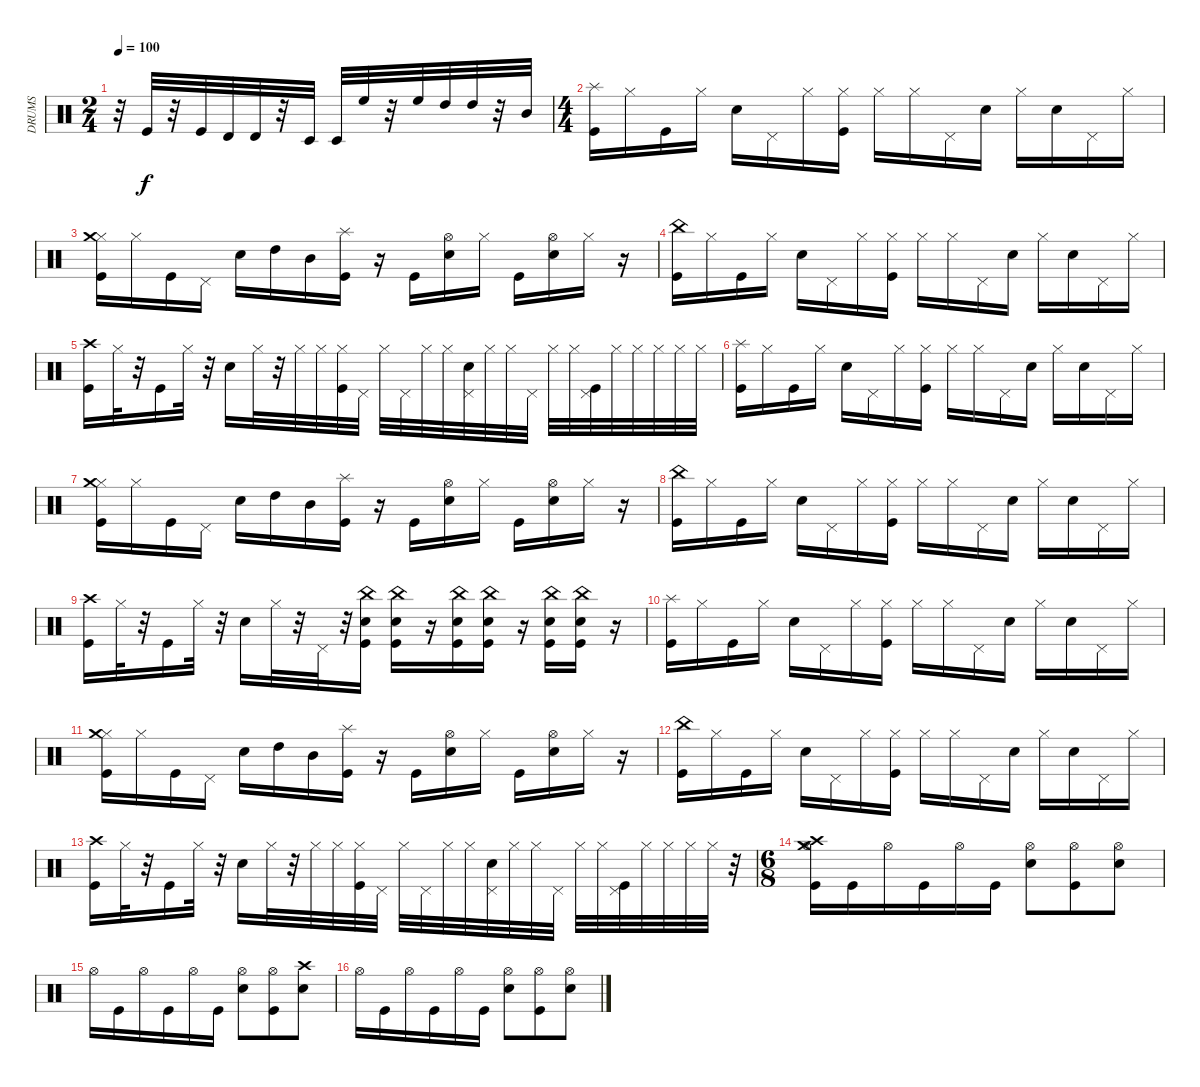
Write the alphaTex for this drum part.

\track ("DRUMS" "DRUMS") {instrument percussion}
\staff {score}
\articulation defaults
\ts (2 4)
\tempo 100
\clef neutral
\ks c
r.32{dy f} "Kick (hit)".32 r.32 "Kick (hit)".32 "Timbale high (hit)".32 "Timbale high (hit)".32 r.32 "Timbale low (hit)".32 "Timbale low (hit)".32 "High Floor Tom (hit)".32 r.32 "High Floor Tom (hit)".32 "High Tom (hit)".32 "High Tom (hit)".32 r.32 "Mid Tom (hit)".32 |
\ts (4 4)
("Splash (hit)" "Kick (hit)").16 "Hi-Hat (closed)".16 "Kick (hit)".16 "Hi-Hat (closed)".16 "Snare (hit) 2".16 "Pedal Hi-Hat (hit)".16 "Hi-Hat (closed)".16 ("Hi-Hat (closed)" "Kick (hit)").16 "Hi-Hat (closed)".16 "Hi-Hat (closed)".16 "Pedal Hi-Hat (hit)".16 "Snare (hit) 2".16 "Hi-Hat (closed)".16 "Snare (hit) 2".16 "Pedal Hi-Hat (hit)".16 "Hi-Hat (closed)".16 |
("Hi-Hat (closed)" "Crash medium (hit)" "Kick (hit)").16 "Hi-Hat (closed)".16 "Kick (hit)".16 "Pedal Hi-Hat (hit)".16 "Snare (hit) 2".16 "High Tom (hit)".16 "Mid Tom (hit)".16 ("Kick (hit)" "Splash (hit)").16 r.16 "Kick (hit)".16 ("Hi-Hat (open)" "Snare (hit) 2").16 "Hi-Hat (closed)".16 "Kick (hit)".16 ("Snare (hit) 2" "Hi-Hat (open)").16 "Hi-Hat (closed)".16 r.16 |
("China (hit)" "Kick (hit)").16 "Hi-Hat (closed)".16 "Kick (hit)".16 "Hi-Hat (closed)".16 "Snare (hit) 2".16 "Pedal Hi-Hat (hit)".16 "Hi-Hat (closed)".16 ("Hi-Hat (closed)" "Kick (hit)").16 "Hi-Hat (closed)".16 "Hi-Hat (closed)".16 "Pedal Hi-Hat (hit)".16 "Snare (hit) 2".16 "Hi-Hat (closed)".16 "Snare (hit) 2".16 "Pedal Hi-Hat (hit)".16 "Hi-Hat (closed)".16 |
("Crash high (hit)" "Kick (hit)").16 "Hi-Hat (closed)".32 r.32 "Kick (hit)".16 "Hi-Hat (closed)".32 r.32 "Snare (hit) 2".16 "Hi-Hat (closed)".32 r.32 "Hi-Hat (closed)".32 "Hi-Hat (closed)".32 ("Hi-Hat (closed)" "Kick (hit)").32 "Pedal Hi-Hat (hit)".32 "Hi-Hat (closed)".32 "Pedal Hi-Hat (hit)".32 "Hi-Hat (closed)".32 "Hi-Hat (closed)".32 ("Pedal Hi-Hat (hit)" "Snare (hit) 2").32 "Hi-Hat (closed)".32 "Hi-Hat (closed)".32 "Pedal Hi-Hat (hit)".32 "Hi-Hat (closed)".32 "Hi-Hat (closed)".32 ("Pedal Hi-Hat (hit)" "Kick (hit)").32 "Hi-Hat (closed)".32 "Hi-Hat (closed)".32 "Hi-Hat (closed)".32 "Hi-Hat (closed)".32 "Hi-Hat (closed)".32 |
("Splash (hit)" "Kick (hit)").16 "Hi-Hat (closed)".16 "Kick (hit)".16 "Hi-Hat (closed)".16 "Snare (hit) 2".16 "Pedal Hi-Hat (hit)".16 "Hi-Hat (closed)".16 ("Hi-Hat (closed)" "Kick (hit)").16 "Hi-Hat (closed)".16 "Hi-Hat (closed)".16 "Pedal Hi-Hat (hit)".16 "Snare (hit) 2".16 "Hi-Hat (closed)".16 "Snare (hit) 2".16 "Pedal Hi-Hat (hit)".16 "Hi-Hat (closed)".16 |
("Hi-Hat (closed)" "Crash medium (hit)" "Kick (hit)").16 "Hi-Hat (closed)".16 "Kick (hit)".16 "Pedal Hi-Hat (hit)".16 "Snare (hit) 2".16 "High Tom (hit)".16 "Mid Tom (hit)".16 ("Kick (hit)" "Splash (hit)").16 r.16 "Kick (hit)".16 ("Hi-Hat (open)" "Snare (hit) 2").16 "Hi-Hat (closed)".16 "Kick (hit)".16 ("Snare (hit) 2" "Hi-Hat (open)").16 "Hi-Hat (closed)".16 r.16 |
("China (hit)" "Kick (hit)").16 "Hi-Hat (closed)".16 "Kick (hit)".16 "Hi-Hat (closed)".16 "Snare (hit) 2".16 "Pedal Hi-Hat (hit)".16 "Hi-Hat (closed)".16 ("Hi-Hat (closed)" "Kick (hit)").16 "Hi-Hat (closed)".16 "Hi-Hat (closed)".16 "Pedal Hi-Hat (hit)".16 "Snare (hit) 2".16 "Hi-Hat (closed)".16 "Snare (hit) 2".16 "Pedal Hi-Hat (hit)".16 "Hi-Hat (closed)".16 |
("Crash high (hit)" "Kick (hit)").16 "Hi-Hat (closed)".32 r.32 "Kick (hit)".16 "Hi-Hat (closed)".32 r.32 "Snare (hit) 2".16 "Hi-Hat (closed)".32 r.32 "Pedal Hi-Hat (hit)".32 r.32 ("Kick (hit)" "China (hit)" "Snare (hit) 2").16 ("China (hit)" "Kick (hit)" "Snare (hit) 2").16 r.16 ("Kick (hit)" "China (hit)" "Snare (hit) 2").16 ("Kick (hit)" "China (hit)" "Snare (hit) 2").16 r.16 ("Kick (hit)" "China (hit)" "Snare (hit) 2").16 ("Kick (hit)" "China (hit)" "Snare (hit) 2").16 r.16 |
("Splash (hit)" "Kick (hit)").16 "Hi-Hat (closed)".16 "Kick (hit)".16 "Hi-Hat (closed)".16 "Snare (hit) 2".16 "Pedal Hi-Hat (hit)".16 "Hi-Hat (closed)".16 ("Hi-Hat (closed)" "Kick (hit)").16 "Hi-Hat (closed)".16 "Hi-Hat (closed)".16 "Pedal Hi-Hat (hit)".16 "Snare (hit) 2".16 "Hi-Hat (closed)".16 "Snare (hit) 2".16 "Pedal Hi-Hat (hit)".16 "Hi-Hat (closed)".16 |
("Hi-Hat (closed)" "Crash medium (hit)" "Kick (hit)").16 "Hi-Hat (closed)".16 "Kick (hit)".16 "Pedal Hi-Hat (hit)".16 "Snare (hit) 2".16 "High Tom (hit)".16 "Mid Tom (hit)".16 ("Kick (hit)" "Splash (hit)").16 r.16 "Kick (hit)".16 ("Hi-Hat (open)" "Snare (hit) 2").16 "Hi-Hat (closed)".16 "Kick (hit)".16 ("Snare (hit) 2" "Hi-Hat (open)").16 "Hi-Hat (closed)".16 r.16 |
("China (hit)" "Kick (hit)").16 "Hi-Hat (closed)".16 "Kick (hit)".16 "Hi-Hat (closed)".16 "Snare (hit) 2".16 "Pedal Hi-Hat (hit)".16 "Hi-Hat (closed)".16 ("Hi-Hat (closed)" "Kick (hit)").16 "Hi-Hat (closed)".16 "Hi-Hat (closed)".16 "Pedal Hi-Hat (hit)".16 "Snare (hit) 2".16 "Hi-Hat (closed)".16 "Snare (hit) 2".16 "Pedal Hi-Hat (hit)".16 "Hi-Hat (closed)".16 |
("Crash high (hit)" "Kick (hit)").16 "Hi-Hat (closed)".32 r.32 "Kick (hit)".16 "Hi-Hat (closed)".32 r.32 "Snare (hit) 2".16 "Hi-Hat (closed)".32 r.32 "Hi-Hat (closed)".32 "Hi-Hat (closed)".32 ("Hi-Hat (closed)" "Kick (hit)").32 "Pedal Hi-Hat (hit)".32 "Hi-Hat (closed)".32 "Pedal Hi-Hat (hit)".32 "Hi-Hat (closed)".32 "Hi-Hat (closed)".32 ("Pedal Hi-Hat (hit)" "Snare (hit) 2").32 "Hi-Hat (closed)".32 "Hi-Hat (closed)".32 "Pedal Hi-Hat (hit)".32 "Hi-Hat (closed)".32 "Hi-Hat (closed)".32 ("Pedal Hi-Hat (hit)" "Kick (hit)").32 "Hi-Hat (closed)".32 "Hi-Hat (closed)".32 "Hi-Hat (closed)".32 "Hi-Hat (closed)".32 r.32 |
\ts (6 8)
("Crash high (hit)" "Kick (hit)" "Crash medium (hit)" "Hi-Hat (open)").16 "Kick (hit)".16 "Hi-Hat (open)".16 "Kick (hit)".16 "Hi-Hat (open)".16 "Kick (hit)".16 ("Snare (hit) 2" "Hi-Hat (open)").8 ("Kick (hit)" "Hi-Hat (open)").8 ("Snare (hit) 2" "Hi-Hat (open)").8 |
"Hi-Hat (open)".16 "Kick (hit)".16 "Hi-Hat (open)".16 "Kick (hit)".16 "Hi-Hat (open)".16 "Kick (hit)".16 ("Snare (hit) 2" "Hi-Hat (open)").8 ("Kick (hit)" "Hi-Hat (open)").8 ("Snare (hit) 2" "Crash high (hit)").8 |
"Hi-Hat (open)".16 "Kick (hit)".16 "Hi-Hat (open)".16 "Kick (hit)".16 "Hi-Hat (open)".16 "Kick (hit)".16 ("Snare (hit) 2" "Hi-Hat (open)").8 ("Kick (hit)" "Hi-Hat (open)").8 ("Snare (hit) 2" "Hi-Hat (open)").8
